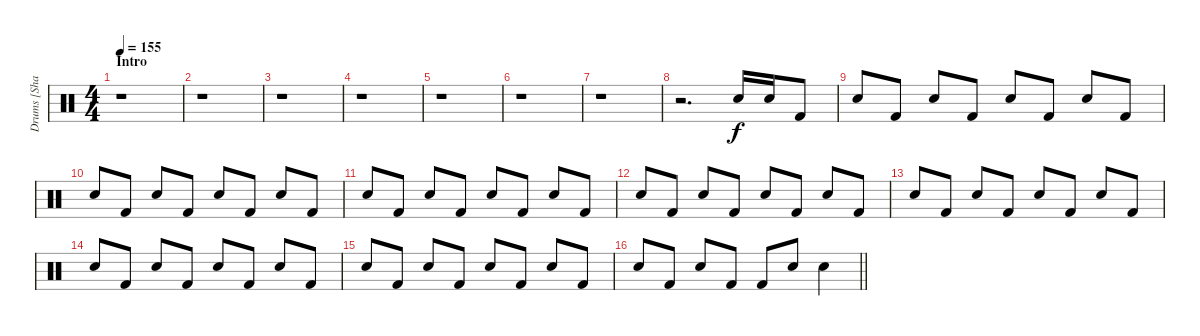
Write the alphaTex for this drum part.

\track ("Drums [Shannon Larkin]" "Drums [Sha") {instrument percussion}
\staff {score}
\articulation defaults
\ts (4 4)
\section ("" "Intro")
\tempo 155
\clef neutral
\ks c
r.1{dy f} |
r.1 |
r.1 |
r.1 |
r.1 |
r.1 |
r.1 |
r.2{d} "Electric Snare (hit)".16 "Electric Snare (hit)".16 "Kick (hit) 2".8 |
"Electric Snare (hit)".8 "Kick (hit) 2".8 "Electric Snare (hit)".8 "Kick (hit) 2".8 "Electric Snare (hit)".8 "Kick (hit) 2".8 "Electric Snare (hit)".8 "Kick (hit) 2".8 |
"Electric Snare (hit)".8 "Kick (hit) 2".8 "Electric Snare (hit)".8 "Kick (hit) 2".8 "Electric Snare (hit)".8 "Kick (hit) 2".8 "Electric Snare (hit)".8 "Kick (hit) 2".8 |
"Electric Snare (hit)".8 "Kick (hit) 2".8 "Electric Snare (hit)".8 "Kick (hit) 2".8 "Electric Snare (hit)".8 "Kick (hit) 2".8 "Electric Snare (hit)".8 "Kick (hit) 2".8 |
"Electric Snare (hit)".8 "Kick (hit) 2".8 "Electric Snare (hit)".8 "Kick (hit) 2".8 "Electric Snare (hit)".8 "Kick (hit) 2".8 "Electric Snare (hit)".8 "Kick (hit) 2".8 |
"Electric Snare (hit)".8 "Kick (hit) 2".8 "Electric Snare (hit)".8 "Kick (hit) 2".8 "Electric Snare (hit)".8 "Kick (hit) 2".8 "Electric Snare (hit)".8 "Kick (hit) 2".8 |
"Electric Snare (hit)".8 "Kick (hit) 2".8 "Electric Snare (hit)".8 "Kick (hit) 2".8 "Electric Snare (hit)".8 "Kick (hit) 2".8 "Electric Snare (hit)".8 "Kick (hit) 2".8 |
"Electric Snare (hit)".8 "Kick (hit) 2".8 "Electric Snare (hit)".8 "Kick (hit) 2".8 "Electric Snare (hit)".8 "Kick (hit) 2".8 "Electric Snare (hit)".8 "Kick (hit) 2".8 |
\barLineRight lightlight "Electric Snare (hit)".8 "Kick (hit) 2".8 "Electric Snare (hit)".8 "Kick (hit) 2".8 "Kick (hit) 2".8 "Electric Snare (hit)".8 "Electric Snare (hit)".4
